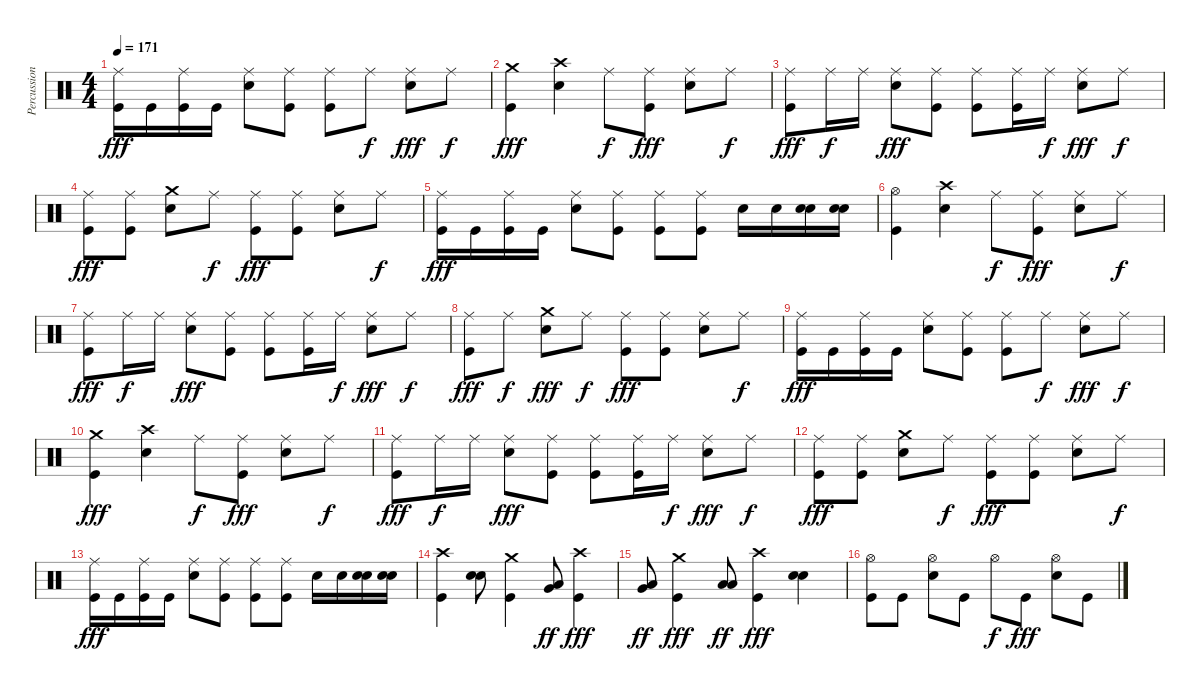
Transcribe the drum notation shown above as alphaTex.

\track ("Percussion" "Percussion") {instrument percussion}
\staff {score}
\articulation defaults
\ts (4 4)
\tempo 171
\clef neutral
\ks c
("Ride (middle)" "Kick (hit)").16{dy fff} "Kick (hit)".16 ("Ride (middle)" "Kick (hit)").16 "Kick (hit)".16 ("Ride (middle)" "Snare (hit) 2").8 ("Ride (middle)" "Kick (hit)").8 ("Ride (middle)" "Kick (hit)").8 "Ride (middle)".8{dy f} ("Ride (middle)" "Snare (hit) 2").8{dy fff} "Ride (middle)".8{dy f} |
("Crash medium (hit)" "Kick (hit)").4{dy fff} ("Crash high (hit)" "Snare (hit) 2").4 "Ride (middle)".8{dy f} ("Ride (middle)" "Kick (hit)").8{dy fff} ("Ride (middle)" "Snare (hit) 2").8 "Ride (middle)".8{dy f} |
("Ride (middle)" "Kick (hit)").8{dy fff} "Ride (middle)".16{dy f} "Ride (middle)".16 ("Ride (middle)" "Snare (hit) 2").8{dy fff} ("Ride (middle)" "Kick (hit)").8 ("Ride (middle)" "Kick (hit)").8 ("Ride (middle)" "Kick (hit)").16 "Ride (middle)".16{dy f} ("Ride (middle)" "Snare (hit) 2").8{dy fff} "Ride (middle)".8{dy f} |
("Ride (middle)" "Kick (hit)").8{dy fff} ("Ride (middle)" "Kick (hit)").8 ("Crash medium (hit)" "Snare (hit) 2").8 "Ride (middle)".8{dy f} ("Ride (middle)" "Kick (hit)").8{dy fff} ("Ride (middle)" "Kick (hit)").8 ("Ride (middle)" "Snare (hit) 2").8 "Ride (middle)".8{dy f} |
("Ride (middle)" "Kick (hit)").16{dy fff} "Kick (hit)".16 ("Ride (middle)" "Kick (hit)").16 "Kick (hit)".16 ("Ride (middle)" "Snare (hit) 2").8 ("Ride (middle)" "Kick (hit)").8 ("Ride (middle)" "Kick (hit)").8 ("Ride (middle)" "Kick (hit)").8 "Snare (hit) 2".16 "Snare (hit) 2".16 ("Electric Snare (hit)" "Snare (hit) 2").16 ("Electric Snare (hit)" "Snare (hit) 2").16 |
("Hi-Hat (open)" "Kick (hit)").4 ("Crash high (hit)" "Snare (hit) 2").4 "Ride (middle)".8{dy f} ("Ride (middle)" "Kick (hit)").8{dy fff} ("Ride (middle)" "Snare (hit) 2").8 "Ride (middle)".8{dy f} |
("Ride (middle)" "Kick (hit)").8{dy fff} "Ride (middle)".16{dy f} "Ride (middle)".16 ("Ride (middle)" "Snare (hit) 2").8{dy fff} ("Ride (middle)" "Kick (hit)").8 ("Ride (middle)" "Kick (hit)").8 ("Ride (middle)" "Kick (hit)").16 "Ride (middle)".16{dy f} ("Ride (middle)" "Snare (hit) 2").8{dy fff} "Ride (middle)".8{dy f} |
("Ride (middle)" "Kick (hit)").8{dy fff} "Ride (middle)".8{dy f} ("Crash medium (hit)" "Snare (hit) 2").8{dy fff} "Ride (middle)".8{dy f} ("Ride (middle)" "Kick (hit)").8{dy fff} ("Ride (middle)" "Kick (hit)").8 ("Ride (middle)" "Snare (hit) 2").8 "Ride (middle)".8{dy f} |
("Ride (middle)" "Kick (hit)").16{dy fff} "Kick (hit)".16 ("Ride (middle)" "Kick (hit)").16 "Kick (hit)".16 ("Ride (middle)" "Snare (hit) 2").8 ("Ride (middle)" "Kick (hit)").8 ("Ride (middle)" "Kick (hit)").8 "Ride (middle)".8{dy f} ("Ride (middle)" "Snare (hit) 2").8{dy fff} "Ride (middle)".8{dy f} |
("Crash medium (hit)" "Kick (hit)").4{dy fff} ("Crash high (hit)" "Snare (hit) 2").4 "Ride (middle)".8{dy f} ("Ride (middle)" "Kick (hit)").8{dy fff} ("Ride (middle)" "Snare (hit) 2").8 "Ride (middle)".8{dy f} |
("Ride (middle)" "Kick (hit)").8{dy fff} "Ride (middle)".16{dy f} "Ride (middle)".16 ("Ride (middle)" "Snare (hit) 2").8{dy fff} ("Ride (middle)" "Kick (hit)").8 ("Ride (middle)" "Kick (hit)").8 ("Ride (middle)" "Kick (hit)").16 "Ride (middle)".16{dy f} ("Ride (middle)" "Snare (hit) 2").8{dy fff} "Ride (middle)".8{dy f} |
("Ride (middle)" "Kick (hit)").8{dy fff} ("Ride (middle)" "Kick (hit)").8 ("Crash medium (hit)" "Snare (hit) 2").8 "Ride (middle)".8{dy f} ("Ride (middle)" "Kick (hit)").8{dy fff} ("Ride (middle)" "Kick (hit)").8 ("Ride (middle)" "Snare (hit) 2").8 "Ride (middle)".8{dy f} |
("Ride (middle)" "Kick (hit)").16{dy fff} "Kick (hit)".16 ("Ride (middle)" "Kick (hit)").16 "Kick (hit)".16 ("Ride (middle)" "Snare (hit) 2").8 ("Ride (middle)" "Kick (hit)").8 ("Ride (middle)" "Kick (hit)").8 ("Ride (middle)" "Kick (hit)").8 "Snare (hit) 2".16 "Snare (hit) 2".16 ("Electric Snare (hit)" "Snare (hit) 2").16 ("Electric Snare (hit)" "Snare (hit) 2").16 |
("Crash high (hit)" "Kick (hit)").4 ("Electric Snare (hit)" "Snare (hit) 2").8 ("Crash medium (hit)" "Kick (hit)").4 ("Very Low Tom (hit)" "Low Tom (hit)").8{dy ff} ("Crash high (hit)" "Kick (hit)").4{dy fff} |
("Low Floor Tom (hit)" "Very Low Tom (hit)").8{dy ff} ("Crash medium (hit)" "Kick (hit)").4{dy fff} ("Low Floor Tom (hit)" "Low Floor Tom (hit)").8{dy ff} ("Crash high (hit)" "Kick (hit)").4{dy fff} ("Electric Snare (hit)" "Snare (hit) 2").4 |
("Hi-Hat (open)" "Kick (hit)").8 "Kick (hit)".8 ("Hi-Hat (open)" "Snare (hit) 2").8 "Kick (hit)".8 "Hi-Hat (open)".8{dy f} "Kick (hit)".8{dy fff} ("Hi-Hat (open)" "Snare (hit) 2").8 "Kick (hit)".8
